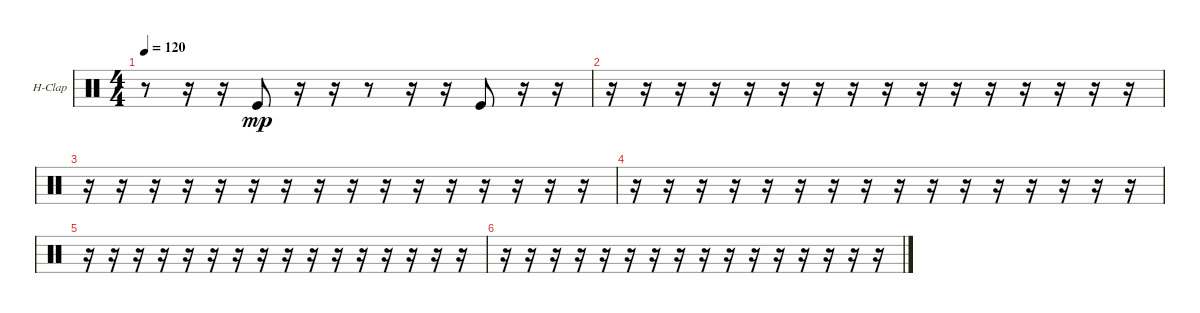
\bracketExtendMode groupsimilarinstruments
\firstSystemTrackNameOrientation horizontal
\otherSystemsTrackNameOrientation horizontal
\track ("Hand Clap" "H-Clap") {instrument percussion}
\staff {score}
\articulation defaults
\ts (4 4)
\tempo 120
\clef neutral
\ks c
r.8{dy mp} r.16 r.16 "Kick (hit)".8 r.16 r.16 r.8 r.16 r.16 "Kick (hit)".8 r.16 r.16 |
r.16 r.16 r.16 r.16 r.16 r.16 r.16 r.16 r.16 r.16 r.16 r.16 r.16 r.16 r.16 r.16 |
r.16 r.16 r.16 r.16 r.16 r.16 r.16 r.16 r.16 r.16 r.16 r.16 r.16 r.16 r.16 r.16 |
r.16 r.16 r.16 r.16 r.16 r.16 r.16 r.16 r.16 r.16 r.16 r.16 r.16 r.16 r.16 r.16 |
r.16 r.16 r.16 r.16 r.16 r.16 r.16 r.16 r.16 r.16 r.16 r.16 r.16 r.16 r.16 r.16 |
r.16 r.16 r.16 r.16 r.16 r.16 r.16 r.16 r.16 r.16 r.16 r.16 r.16 r.16 r.16 r.16
